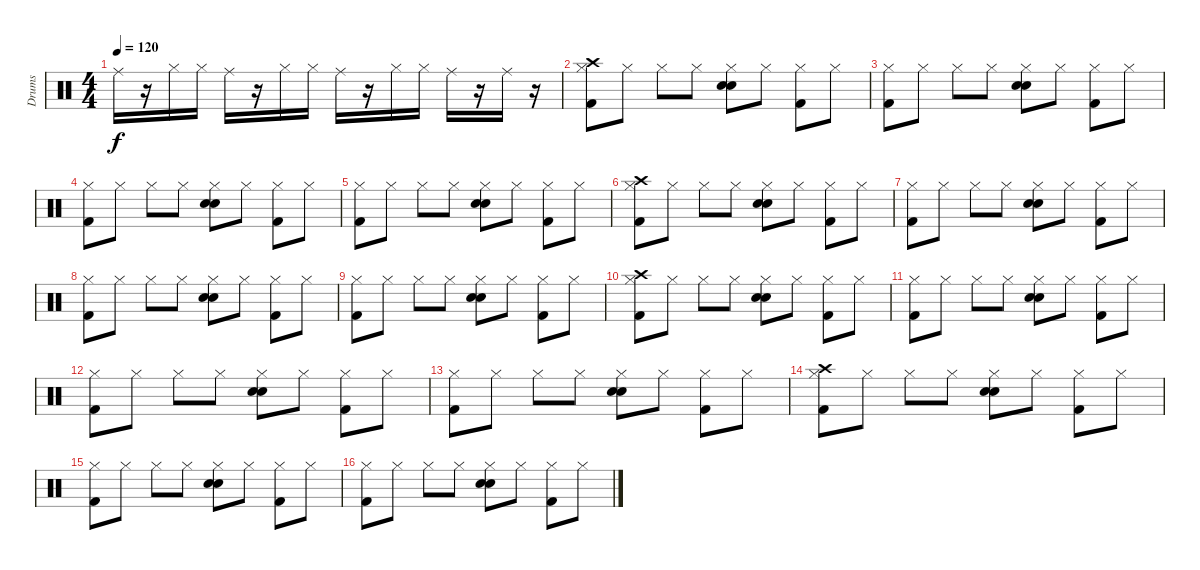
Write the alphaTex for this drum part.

\track ("Drums" "Drums") {instrument percussion}
\staff {score}
\articulation defaults
\ts (4 4)
\tempo 120
\clef neutral
\ks c "Ride (middle)".16{dy f}
r.16 "Hi-Hat (closed)".16 "Hi-Hat (closed)".16 "Ride (middle)".16 r.16 "Hi-Hat (closed)".16 "Hi-Hat (closed)".16 "Ride (middle)".16 r.16 "Hi-Hat (closed)".16 "Hi-Hat (closed)".16 "Ride (middle)".16 r.16 "Ride (middle)".16 r.16 |
("Hi-Hat (closed)" "Kick (hit) 2" "Crash high (hit)").8 "Hi-Hat (closed)".8 "Hi-Hat (closed)".8 "Hi-Hat (closed)".8 ("Hi-Hat (closed)" "Snare (hit) 2" "Electric Snare (hit)").8 "Hi-Hat (closed)".8 ("Hi-Hat (closed)" "Kick (hit) 2").8 "Hi-Hat (closed)".8 |
("Hi-Hat (closed)" "Kick (hit) 2").8 "Hi-Hat (closed)".8 "Hi-Hat (closed)".8 "Hi-Hat (closed)".8 ("Hi-Hat (closed)" "Snare (hit) 2" "Electric Snare (hit)").8 "Hi-Hat (closed)".8 ("Hi-Hat (closed)" "Kick (hit) 2").8 "Hi-Hat (closed)".8 |
("Hi-Hat (closed)" "Kick (hit) 2").8 "Hi-Hat (closed)".8 "Hi-Hat (closed)".8 "Hi-Hat (closed)".8 ("Hi-Hat (closed)" "Snare (hit) 2" "Electric Snare (hit)").8 "Hi-Hat (closed)".8 ("Hi-Hat (closed)" "Kick (hit) 2").8 "Hi-Hat (closed)".8 |
("Hi-Hat (closed)" "Kick (hit) 2").8 "Hi-Hat (closed)".8 "Hi-Hat (closed)".8 "Hi-Hat (closed)".8 ("Hi-Hat (closed)" "Snare (hit) 2" "Electric Snare (hit)").8 "Hi-Hat (closed)".8 ("Hi-Hat (closed)" "Kick (hit) 2").8 "Hi-Hat (closed)".8 |
("Hi-Hat (closed)" "Kick (hit) 2" "Crash high (hit)").8 "Hi-Hat (closed)".8 "Hi-Hat (closed)".8 "Hi-Hat (closed)".8 ("Hi-Hat (closed)" "Snare (hit) 2" "Electric Snare (hit)").8 "Hi-Hat (closed)".8 ("Hi-Hat (closed)" "Kick (hit) 2").8 "Hi-Hat (closed)".8 |
("Hi-Hat (closed)" "Kick (hit) 2").8 "Hi-Hat (closed)".8 "Hi-Hat (closed)".8 "Hi-Hat (closed)".8 ("Hi-Hat (closed)" "Snare (hit) 2" "Electric Snare (hit)").8 "Hi-Hat (closed)".8 ("Hi-Hat (closed)" "Kick (hit) 2").8 "Hi-Hat (closed)".8 |
("Hi-Hat (closed)" "Kick (hit) 2").8 "Hi-Hat (closed)".8 "Hi-Hat (closed)".8 "Hi-Hat (closed)".8 ("Hi-Hat (closed)" "Snare (hit) 2" "Electric Snare (hit)").8 "Hi-Hat (closed)".8 ("Hi-Hat (closed)" "Kick (hit) 2").8 "Hi-Hat (closed)".8 |
("Hi-Hat (closed)" "Kick (hit) 2").8 "Hi-Hat (closed)".8 "Hi-Hat (closed)".8 "Hi-Hat (closed)".8 ("Hi-Hat (closed)" "Snare (hit) 2" "Electric Snare (hit)").8 "Hi-Hat (closed)".8 ("Hi-Hat (closed)" "Kick (hit) 2").8 "Hi-Hat (closed)".8 |
("Hi-Hat (closed)" "Kick (hit) 2" "Crash high (hit)").8 "Hi-Hat (closed)".8 "Hi-Hat (closed)".8 "Hi-Hat (closed)".8 ("Hi-Hat (closed)" "Snare (hit) 2" "Electric Snare (hit)").8 "Hi-Hat (closed)".8 ("Hi-Hat (closed)" "Kick (hit) 2").8 "Hi-Hat (closed)".8 |
("Hi-Hat (closed)" "Kick (hit) 2").8 "Hi-Hat (closed)".8 "Hi-Hat (closed)".8 "Hi-Hat (closed)".8 ("Hi-Hat (closed)" "Snare (hit) 2" "Electric Snare (hit)").8 "Hi-Hat (closed)".8 ("Hi-Hat (closed)" "Kick (hit) 2").8 "Hi-Hat (closed)".8 |
("Hi-Hat (closed)" "Kick (hit) 2").8 "Hi-Hat (closed)".8 "Hi-Hat (closed)".8 "Hi-Hat (closed)".8 ("Hi-Hat (closed)" "Snare (hit) 2" "Electric Snare (hit)").8 "Hi-Hat (closed)".8 ("Hi-Hat (closed)" "Kick (hit) 2").8 "Hi-Hat (closed)".8 |
("Hi-Hat (closed)" "Kick (hit) 2").8 "Hi-Hat (closed)".8 "Hi-Hat (closed)".8 "Hi-Hat (closed)".8 ("Hi-Hat (closed)" "Snare (hit) 2" "Electric Snare (hit)").8 "Hi-Hat (closed)".8 ("Hi-Hat (closed)" "Kick (hit) 2").8 "Hi-Hat (closed)".8 |
("Hi-Hat (closed)" "Kick (hit) 2" "Crash high (hit)").8 "Hi-Hat (closed)".8 "Hi-Hat (closed)".8 "Hi-Hat (closed)".8 ("Hi-Hat (closed)" "Snare (hit) 2" "Electric Snare (hit)").8 "Hi-Hat (closed)".8 ("Hi-Hat (closed)" "Kick (hit) 2").8 "Hi-Hat (closed)".8 |
("Hi-Hat (closed)" "Kick (hit) 2").8 "Hi-Hat (closed)".8 "Hi-Hat (closed)".8 "Hi-Hat (closed)".8 ("Hi-Hat (closed)" "Snare (hit) 2" "Electric Snare (hit)").8 "Hi-Hat (closed)".8 ("Hi-Hat (closed)" "Kick (hit) 2").8 "Hi-Hat (closed)".8 |
("Hi-Hat (closed)" "Kick (hit) 2").8 "Hi-Hat (closed)".8 "Hi-Hat (closed)".8 "Hi-Hat (closed)".8 ("Hi-Hat (closed)" "Snare (hit) 2" "Electric Snare (hit)").8 "Hi-Hat (closed)".8 ("Hi-Hat (closed)" "Kick (hit) 2").8 "Hi-Hat (closed)".8
